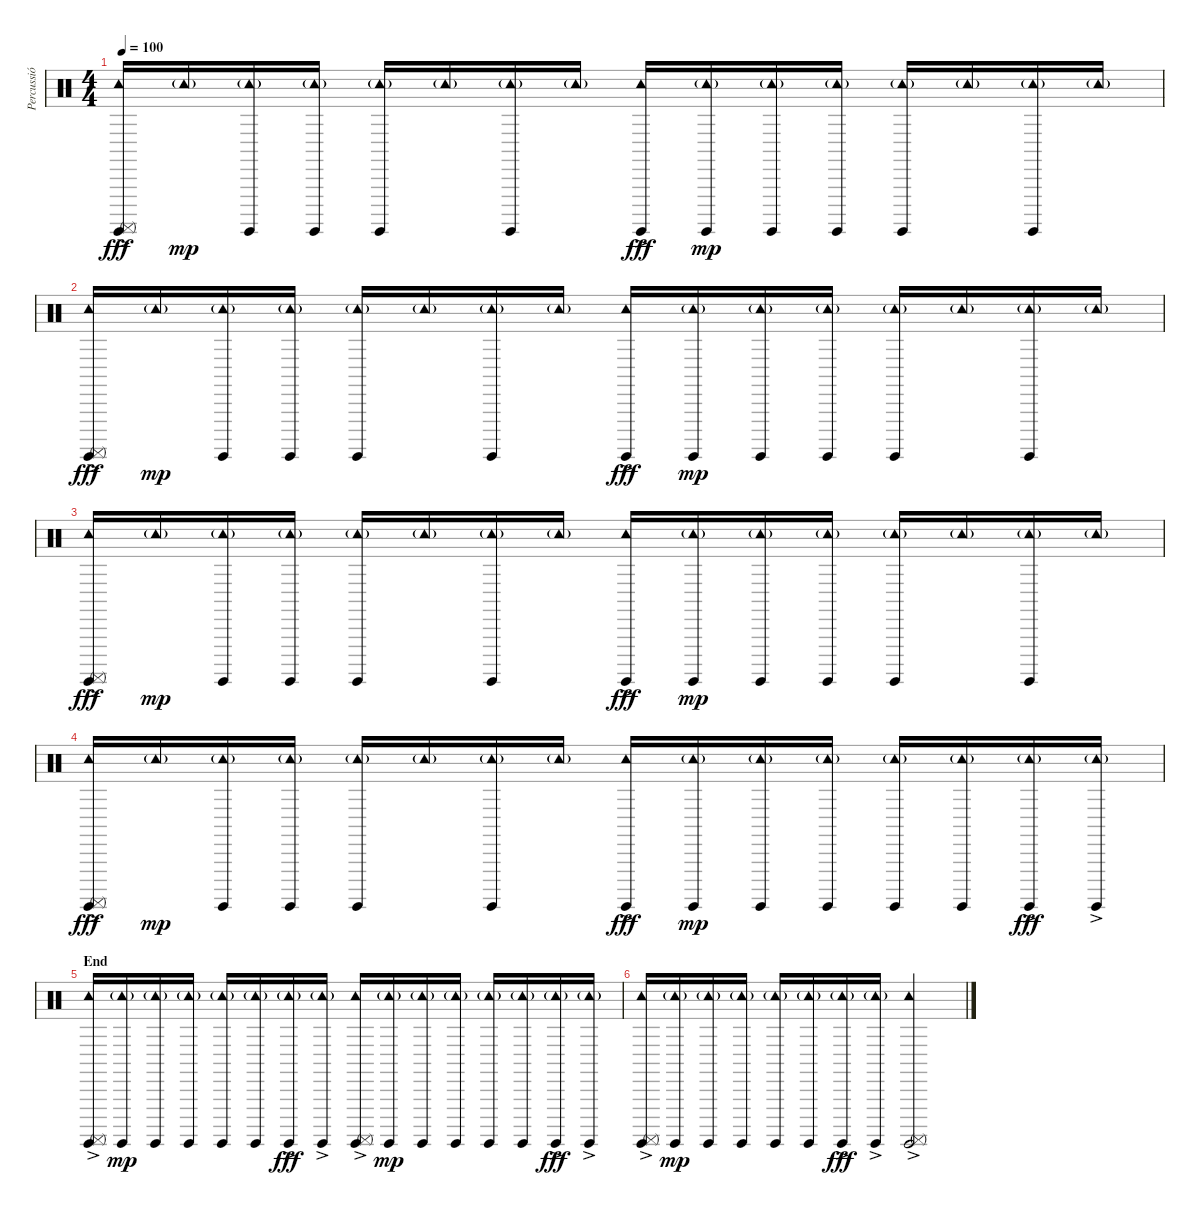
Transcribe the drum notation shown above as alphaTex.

\track ("Percussió" "Percussió") {instrument percussion}
\staff {score}
\articulation defaults
\ts (4 4)
\tempo 100
\clef neutral
\ks c
("Tambourine (hit)"{ac} "Surdo (hit)" "Surdo (mute)"{ac}).16{dy fff} "Tambourine (hit)"{g}.16{dy mp} ("Tambourine (hit)"{g} "Surdo (hit)").16 ("Tambourine (hit)"{g} "Surdo (hit)").16 ("Tambourine (hit)"{g} "Surdo (hit)").16 "Tambourine (hit)"{g}.16 ("Tambourine (hit)"{g} "Surdo (hit)").16 "Tambourine (hit)"{g}.16 ("Tambourine (hit)"{ac} "Surdo (hit)"{ac}).16{dy fff} ("Tambourine (hit)"{g} "Surdo (hit)").16{dy mp} ("Tambourine (hit)"{g} "Surdo (hit)").16 ("Tambourine (hit)"{g} "Surdo (hit)").16 ("Tambourine (hit)"{g} "Surdo (hit)").16 "Tambourine (hit)"{g}.16 ("Tambourine (hit)"{g} "Surdo (hit)").16 "Tambourine (hit)"{g}.16 |
("Tambourine (hit)"{ac} "Surdo (hit)" "Surdo (mute)"{ac}).16{dy fff} "Tambourine (hit)"{g}.16{dy mp} ("Tambourine (hit)"{g} "Surdo (hit)").16 ("Tambourine (hit)"{g} "Surdo (hit)").16 ("Tambourine (hit)"{g} "Surdo (hit)").16 "Tambourine (hit)"{g}.16 ("Tambourine (hit)"{g} "Surdo (hit)").16 "Tambourine (hit)"{g}.16 ("Tambourine (hit)"{ac} "Surdo (hit)"{ac}).16{dy fff} ("Tambourine (hit)"{g} "Surdo (hit)").16{dy mp} ("Tambourine (hit)"{g} "Surdo (hit)").16 ("Tambourine (hit)"{g} "Surdo (hit)").16 ("Tambourine (hit)"{g} "Surdo (hit)").16 "Tambourine (hit)"{g}.16 ("Tambourine (hit)"{g} "Surdo (hit)").16 "Tambourine (hit)"{g}.16 |
("Tambourine (hit)"{ac} "Surdo (hit)" "Surdo (mute)"{ac}).16{dy fff} "Tambourine (hit)"{g}.16{dy mp} ("Tambourine (hit)"{g} "Surdo (hit)").16 ("Tambourine (hit)"{g} "Surdo (hit)").16 ("Tambourine (hit)"{g} "Surdo (hit)").16 "Tambourine (hit)"{g}.16 ("Tambourine (hit)"{g} "Surdo (hit)").16 "Tambourine (hit)"{g}.16 ("Tambourine (hit)"{ac} "Surdo (hit)"{ac}).16{dy fff} ("Tambourine (hit)"{g} "Surdo (hit)").16{dy mp} ("Tambourine (hit)"{g} "Surdo (hit)").16 ("Tambourine (hit)"{g} "Surdo (hit)").16 ("Tambourine (hit)"{g} "Surdo (hit)").16 "Tambourine (hit)"{g}.16 ("Tambourine (hit)"{g} "Surdo (hit)").16 "Tambourine (hit)"{g}.16 |
("Tambourine (hit)"{ac} "Surdo (hit)" "Surdo (mute)"{ac}).16{dy fff} "Tambourine (hit)"{g}.16{dy mp} ("Tambourine (hit)"{g} "Surdo (hit)").16 ("Tambourine (hit)"{g} "Surdo (hit)").16 ("Tambourine (hit)"{g} "Surdo (hit)").16 "Tambourine (hit)"{g}.16 ("Tambourine (hit)"{g} "Surdo (hit)").16 "Tambourine (hit)"{g}.16 ("Tambourine (hit)"{ac} "Surdo (hit)"{ac}).16{dy fff} ("Tambourine (hit)"{g} "Surdo (hit)").16{dy mp} ("Tambourine (hit)"{g} "Surdo (hit)").16 ("Tambourine (hit)"{g} "Surdo (hit)").16 ("Tambourine (hit)"{g} "Surdo (hit)").16 ("Tambourine (hit)"{g} "Surdo (hit)").16 ("Tambourine (hit)"{g} "Surdo (hit)"{ac}).16{dy fff} ("Tambourine (hit)"{g} "Surdo (hit)"{ac}).16 |
\section ("" "End")
("Tambourine (hit)"{ac} "Surdo (hit)" "Surdo (mute)"{ac}).16 ("Tambourine (hit)"{g} "Surdo (hit)").16{dy mp} ("Tambourine (hit)"{g} "Surdo (hit)").16 ("Tambourine (hit)"{g} "Surdo (hit)").16 ("Tambourine (hit)"{g} "Surdo (hit)").16 ("Tambourine (hit)"{g} "Surdo (hit)").16 ("Tambourine (hit)"{g} "Surdo (hit)"{ac}).16{dy fff} ("Tambourine (hit)"{g} "Surdo (hit)"{ac}).16 ("Tambourine (hit)"{ac} "Surdo (hit)"{ac} "Surdo (mute)"{ac}).16 ("Tambourine (hit)"{g} "Surdo (hit)").16{dy mp} ("Tambourine (hit)"{g} "Surdo (hit)").16 ("Tambourine (hit)"{g} "Surdo (hit)").16 ("Tambourine (hit)"{g} "Surdo (hit)").16 ("Tambourine (hit)"{g} "Surdo (hit)").16 ("Tambourine (hit)"{g} "Surdo (hit)"{ac}).16{dy fff} ("Tambourine (hit)"{g} "Surdo (hit)"{ac}).16 |
("Tambourine (hit)"{ac} "Surdo (hit)" "Surdo (mute)"{ac}).16 ("Tambourine (hit)"{g} "Surdo (hit)").16{dy mp} ("Tambourine (hit)"{g} "Surdo (hit)").16 ("Tambourine (hit)"{g} "Surdo (hit)").16 ("Tambourine (hit)"{g} "Surdo (hit)").16 ("Tambourine (hit)"{g} "Surdo (hit)").16 ("Tambourine (hit)"{g} "Surdo (hit)"{ac}).16{dy fff} ("Tambourine (hit)"{g} "Surdo (hit)"{ac}).16 ("Tambourine (hit)"{ac} "Surdo (hit)"{ac} "Surdo (mute)"{ac}).2
